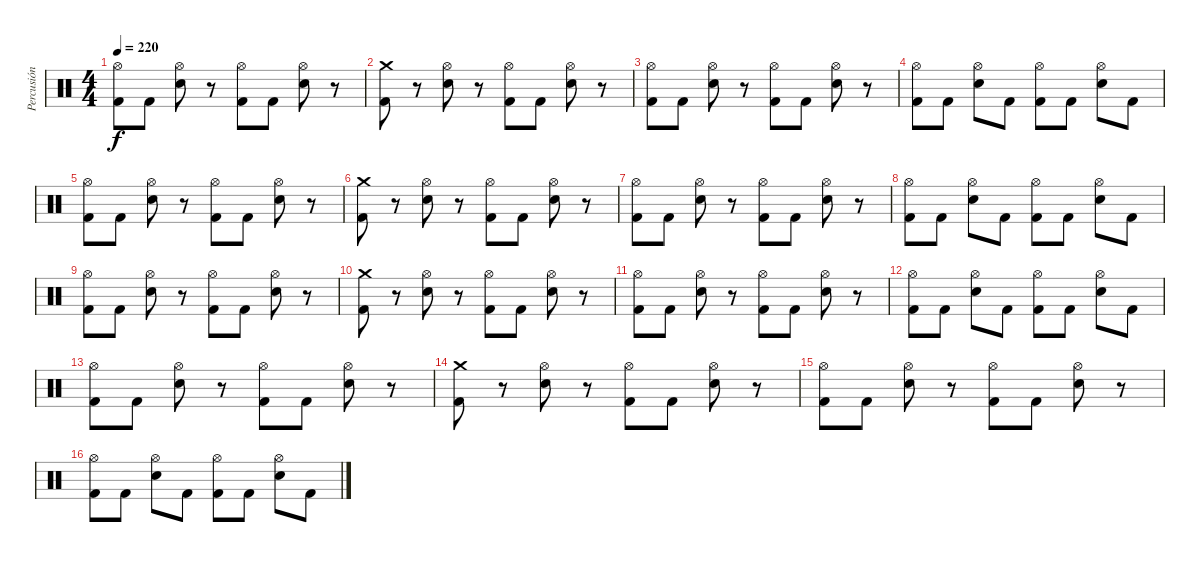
\track ("Percusión" "Percusión") {instrument percussion}
\staff {score}
\articulation defaults
\ts (4 4)
\tempo 220
\clef neutral
\ks c
("Hi-Hat (open)" "Kick (hit) 2").8{dy f} "Kick (hit) 2".8 ("Hi-Hat (open)" "Electric Snare (hit)").8 r.8 ("Hi-Hat (open)" "Kick (hit) 2").8 "Kick (hit) 2".8 ("Hi-Hat (open)" "Electric Snare (hit)").8 r.8 |
("Crash medium (hit)" "Kick (hit) 2").8 r.8 ("Hi-Hat (open)" "Electric Snare (hit)").8 r.8 ("Hi-Hat (open)" "Kick (hit) 2").8 "Kick (hit) 2".8 ("Hi-Hat (open)" "Electric Snare (hit)").8 r.8 |
("Hi-Hat (open)" "Kick (hit) 2").8 "Kick (hit) 2".8 ("Hi-Hat (open)" "Electric Snare (hit)").8 r.8 ("Hi-Hat (open)" "Kick (hit) 2").8 "Kick (hit) 2".8 ("Hi-Hat (open)" "Electric Snare (hit)").8 r.8 |
("Hi-Hat (open)" "Kick (hit) 2").8 "Kick (hit) 2".8 ("Hi-Hat (open)" "Electric Snare (hit)").8 "Kick (hit) 2".8 ("Hi-Hat (open)" "Kick (hit) 2").8 "Kick (hit) 2".8 ("Hi-Hat (open)" "Electric Snare (hit)").8 "Kick (hit) 2".8 |
("Hi-Hat (open)" "Kick (hit) 2").8 "Kick (hit) 2".8 ("Hi-Hat (open)" "Electric Snare (hit)").8 r.8 ("Hi-Hat (open)" "Kick (hit) 2").8 "Kick (hit) 2".8 ("Hi-Hat (open)" "Electric Snare (hit)").8 r.8 |
("Crash medium (hit)" "Kick (hit) 2").8 r.8 ("Hi-Hat (open)" "Electric Snare (hit)").8 r.8 ("Hi-Hat (open)" "Kick (hit) 2").8 "Kick (hit) 2".8 ("Hi-Hat (open)" "Electric Snare (hit)").8 r.8 |
("Hi-Hat (open)" "Kick (hit) 2").8 "Kick (hit) 2".8 ("Hi-Hat (open)" "Electric Snare (hit)").8 r.8 ("Hi-Hat (open)" "Kick (hit) 2").8 "Kick (hit) 2".8 ("Hi-Hat (open)" "Electric Snare (hit)").8 r.8 |
("Hi-Hat (open)" "Kick (hit) 2").8 "Kick (hit) 2".8 ("Hi-Hat (open)" "Electric Snare (hit)").8 "Kick (hit) 2".8 ("Hi-Hat (open)" "Kick (hit) 2").8 "Kick (hit) 2".8 ("Hi-Hat (open)" "Electric Snare (hit)").8 "Kick (hit) 2".8 |
("Hi-Hat (open)" "Kick (hit) 2").8 "Kick (hit) 2".8 ("Hi-Hat (open)" "Electric Snare (hit)").8 r.8 ("Hi-Hat (open)" "Kick (hit) 2").8 "Kick (hit) 2".8 ("Hi-Hat (open)" "Electric Snare (hit)").8 r.8 |
("Crash medium (hit)" "Kick (hit) 2").8 r.8 ("Hi-Hat (open)" "Electric Snare (hit)").8 r.8 ("Hi-Hat (open)" "Kick (hit) 2").8 "Kick (hit) 2".8 ("Hi-Hat (open)" "Electric Snare (hit)").8 r.8 |
("Hi-Hat (open)" "Kick (hit) 2").8 "Kick (hit) 2".8 ("Hi-Hat (open)" "Electric Snare (hit)").8 r.8 ("Hi-Hat (open)" "Kick (hit) 2").8 "Kick (hit) 2".8 ("Hi-Hat (open)" "Electric Snare (hit)").8 r.8 |
("Hi-Hat (open)" "Kick (hit) 2").8 "Kick (hit) 2".8 ("Hi-Hat (open)" "Electric Snare (hit)").8 "Kick (hit) 2".8 ("Hi-Hat (open)" "Kick (hit) 2").8 "Kick (hit) 2".8 ("Hi-Hat (open)" "Electric Snare (hit)").8 "Kick (hit) 2".8 |
("Hi-Hat (open)" "Kick (hit) 2").8 "Kick (hit) 2".8 ("Hi-Hat (open)" "Electric Snare (hit)").8 r.8 ("Hi-Hat (open)" "Kick (hit) 2").8 "Kick (hit) 2".8 ("Hi-Hat (open)" "Electric Snare (hit)").8 r.8 |
("Crash medium (hit)" "Kick (hit) 2").8 r.8 ("Hi-Hat (open)" "Electric Snare (hit)").8 r.8 ("Hi-Hat (open)" "Kick (hit) 2").8 "Kick (hit) 2".8 ("Hi-Hat (open)" "Electric Snare (hit)").8 r.8 |
("Hi-Hat (open)" "Kick (hit) 2").8 "Kick (hit) 2".8 ("Hi-Hat (open)" "Electric Snare (hit)").8 r.8 ("Hi-Hat (open)" "Kick (hit) 2").8 "Kick (hit) 2".8 ("Hi-Hat (open)" "Electric Snare (hit)").8 r.8 |
("Hi-Hat (open)" "Kick (hit) 2").8 "Kick (hit) 2".8 ("Hi-Hat (open)" "Electric Snare (hit)").8 "Kick (hit) 2".8 ("Hi-Hat (open)" "Kick (hit) 2").8 "Kick (hit) 2".8 ("Hi-Hat (open)" "Electric Snare (hit)").8 "Kick (hit) 2".8
